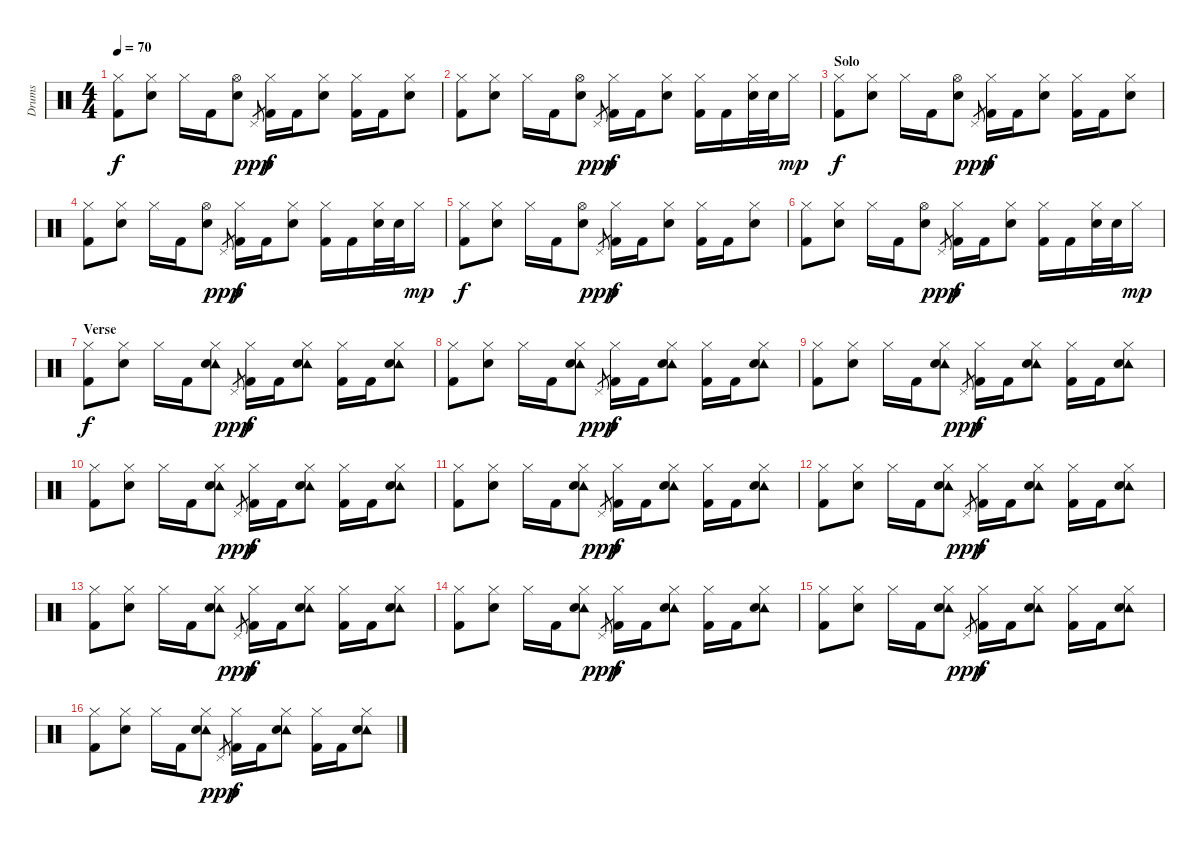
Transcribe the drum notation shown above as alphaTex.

\track ("Drums" "Drums") {instrument percussion}
\staff {score}
\articulation defaults
\ts (4 4)
\tempo 70
\clef neutral
\ks c
("Hi-Hat (closed)" "Kick (hit) 2").8{dy f} ("Hi-Hat (closed)" "Electric Snare (hit)").8 "Hi-Hat (closed)".16 "Kick (hit) 2".16 ("Hi-Hat (open)" "Electric Snare (hit)").8 "Pedal Hi-Hat (hit)".8{gr dy ppp} ("Hi-Hat (closed)" "Kick (hit) 2").16{dy f} "Kick (hit) 2".16 ("Hi-Hat (closed)" "Electric Snare (hit)").8 ("Hi-Hat (closed)" "Kick (hit) 2").16 "Kick (hit) 2".16 ("Hi-Hat (closed)" "Electric Snare (hit)").8 |
("Hi-Hat (closed)" "Kick (hit) 2").8 ("Hi-Hat (closed)" "Electric Snare (hit)").8 "Hi-Hat (closed)".16 "Kick (hit) 2".16 ("Hi-Hat (open)" "Electric Snare (hit)").8 "Pedal Hi-Hat (hit)".8{gr dy ppp} ("Hi-Hat (closed)" "Kick (hit) 2").16{dy f} "Kick (hit) 2".16 ("Hi-Hat (closed)" "Electric Snare (hit)").8 ("Hi-Hat (closed)" "Kick (hit) 2").16 "Kick (hit) 2".16 ("Hi-Hat (closed)" "Electric Snare (hit)").32 "Electric Snare (hit)".32 "Hi-Hat (closed)".16{dy mp} |
\section ("" "Solo")
("Hi-Hat (closed)" "Kick (hit) 2").8{dy f} ("Hi-Hat (closed)" "Electric Snare (hit)").8 "Hi-Hat (closed)".16 "Kick (hit) 2".16 ("Hi-Hat (open)" "Electric Snare (hit)").8 "Pedal Hi-Hat (hit)".8{gr dy ppp} ("Hi-Hat (closed)" "Kick (hit) 2").16{dy f} "Kick (hit) 2".16 ("Hi-Hat (closed)" "Electric Snare (hit)").8 ("Hi-Hat (closed)" "Kick (hit) 2").16 "Kick (hit) 2".16 ("Hi-Hat (closed)" "Electric Snare (hit)").8 |
("Hi-Hat (closed)" "Kick (hit) 2").8 ("Hi-Hat (closed)" "Electric Snare (hit)").8 "Hi-Hat (closed)".16 "Kick (hit) 2".16 ("Hi-Hat (open)" "Electric Snare (hit)").8 "Pedal Hi-Hat (hit)".8{gr dy ppp} ("Hi-Hat (closed)" "Kick (hit) 2").16{dy f} "Kick (hit) 2".16 ("Hi-Hat (closed)" "Electric Snare (hit)").8 ("Hi-Hat (closed)" "Kick (hit) 2").16 "Kick (hit) 2".16 ("Hi-Hat (closed)" "Electric Snare (hit)").32 "Electric Snare (hit)".32 "Hi-Hat (closed)".16{dy mp} |
("Hi-Hat (closed)" "Kick (hit) 2").8{dy f} ("Hi-Hat (closed)" "Electric Snare (hit)").8 "Hi-Hat (closed)".16 "Kick (hit) 2".16 ("Hi-Hat (open)" "Electric Snare (hit)").8 "Pedal Hi-Hat (hit)".8{gr dy ppp} ("Hi-Hat (closed)" "Kick (hit) 2").16{dy f} "Kick (hit) 2".16 ("Hi-Hat (closed)" "Electric Snare (hit)").8 ("Hi-Hat (closed)" "Kick (hit) 2").16 "Kick (hit) 2".16 ("Hi-Hat (closed)" "Electric Snare (hit)").8 |
("Hi-Hat (closed)" "Kick (hit) 2").8 ("Hi-Hat (closed)" "Electric Snare (hit)").8 "Hi-Hat (closed)".16 "Kick (hit) 2".16 ("Hi-Hat (open)" "Electric Snare (hit)").8 "Pedal Hi-Hat (hit)".8{gr dy ppp} ("Hi-Hat (closed)" "Kick (hit) 2").16{dy f} "Kick (hit) 2".16 ("Hi-Hat (closed)" "Electric Snare (hit)").8 ("Hi-Hat (closed)" "Kick (hit) 2").16 "Kick (hit) 2".16 ("Hi-Hat (closed)" "Electric Snare (hit)").32 "Electric Snare (hit)".32 "Hi-Hat (closed)".16{dy mp} |
\section ("" "Verse")
("Hi-Hat (closed)" "Kick (hit) 2").8{dy f} ("Hi-Hat (closed)" "Electric Snare (hit)").8 "Hi-Hat (closed)".16 "Kick (hit) 2".16 ("Tambourine (hit)" "Hi-Hat (closed)" "Electric Snare (hit)").8 "Pedal Hi-Hat (hit)".8{gr dy ppp} ("Hi-Hat (closed)" "Kick (hit) 2").16{dy f} "Kick (hit) 2".16 ("Tambourine (hit)" "Hi-Hat (closed)" "Electric Snare (hit)").8 ("Hi-Hat (closed)" "Kick (hit) 2").16 "Kick (hit) 2".16 ("Tambourine (hit)" "Hi-Hat (closed)" "Electric Snare (hit)").8 |
("Hi-Hat (closed)" "Kick (hit) 2").8 ("Hi-Hat (closed)" "Electric Snare (hit)").8 "Hi-Hat (closed)".16 "Kick (hit) 2".16 ("Tambourine (hit)" "Hi-Hat (closed)" "Electric Snare (hit)").8 "Pedal Hi-Hat (hit)".8{gr dy ppp} ("Hi-Hat (closed)" "Kick (hit) 2").16{dy f} "Kick (hit) 2".16 ("Tambourine (hit)" "Hi-Hat (closed)" "Electric Snare (hit)").8 ("Hi-Hat (closed)" "Kick (hit) 2").16 "Kick (hit) 2".16 ("Tambourine (hit)" "Hi-Hat (closed)" "Electric Snare (hit)").8 |
("Hi-Hat (closed)" "Kick (hit) 2").8 ("Hi-Hat (closed)" "Electric Snare (hit)").8 "Hi-Hat (closed)".16 "Kick (hit) 2".16 ("Tambourine (hit)" "Hi-Hat (closed)" "Electric Snare (hit)").8 "Pedal Hi-Hat (hit)".8{gr dy ppp} ("Hi-Hat (closed)" "Kick (hit) 2").16{dy f} "Kick (hit) 2".16 ("Tambourine (hit)" "Hi-Hat (closed)" "Electric Snare (hit)").8 ("Hi-Hat (closed)" "Kick (hit) 2").16 "Kick (hit) 2".16 ("Tambourine (hit)" "Hi-Hat (closed)" "Electric Snare (hit)").8 |
("Hi-Hat (closed)" "Kick (hit) 2").8 ("Hi-Hat (closed)" "Electric Snare (hit)").8 "Hi-Hat (closed)".16 "Kick (hit) 2".16 ("Tambourine (hit)" "Hi-Hat (closed)" "Electric Snare (hit)").8 "Pedal Hi-Hat (hit)".8{gr dy ppp} ("Hi-Hat (closed)" "Kick (hit) 2").16{dy f} "Kick (hit) 2".16 ("Tambourine (hit)" "Hi-Hat (closed)" "Electric Snare (hit)").8 ("Hi-Hat (closed)" "Kick (hit) 2").16 "Kick (hit) 2".16 ("Tambourine (hit)" "Hi-Hat (closed)" "Electric Snare (hit)").8 |
("Hi-Hat (closed)" "Kick (hit) 2").8 ("Hi-Hat (closed)" "Electric Snare (hit)").8 "Hi-Hat (closed)".16 "Kick (hit) 2".16 ("Tambourine (hit)" "Hi-Hat (closed)" "Electric Snare (hit)").8 "Pedal Hi-Hat (hit)".8{gr dy ppp} ("Hi-Hat (closed)" "Kick (hit) 2").16{dy f} "Kick (hit) 2".16 ("Tambourine (hit)" "Hi-Hat (closed)" "Electric Snare (hit)").8 ("Hi-Hat (closed)" "Kick (hit) 2").16 "Kick (hit) 2".16 ("Tambourine (hit)" "Hi-Hat (closed)" "Electric Snare (hit)").8 |
("Hi-Hat (closed)" "Kick (hit) 2").8 ("Hi-Hat (closed)" "Electric Snare (hit)").8 "Hi-Hat (closed)".16 "Kick (hit) 2".16 ("Tambourine (hit)" "Hi-Hat (closed)" "Electric Snare (hit)").8 "Pedal Hi-Hat (hit)".8{gr dy ppp} ("Hi-Hat (closed)" "Kick (hit) 2").16{dy f} "Kick (hit) 2".16 ("Tambourine (hit)" "Hi-Hat (closed)" "Electric Snare (hit)").8 ("Hi-Hat (closed)" "Kick (hit) 2").16 "Kick (hit) 2".16 ("Tambourine (hit)" "Hi-Hat (closed)" "Electric Snare (hit)").8 |
("Hi-Hat (closed)" "Kick (hit) 2").8 ("Hi-Hat (closed)" "Electric Snare (hit)").8 "Hi-Hat (closed)".16 "Kick (hit) 2".16 ("Tambourine (hit)" "Hi-Hat (closed)" "Electric Snare (hit)").8 "Pedal Hi-Hat (hit)".8{gr dy ppp} ("Hi-Hat (closed)" "Kick (hit) 2").16{dy f} "Kick (hit) 2".16 ("Tambourine (hit)" "Hi-Hat (closed)" "Electric Snare (hit)").8 ("Hi-Hat (closed)" "Kick (hit) 2").16 "Kick (hit) 2".16 ("Tambourine (hit)" "Hi-Hat (closed)" "Electric Snare (hit)").8 |
("Hi-Hat (closed)" "Kick (hit) 2").8 ("Hi-Hat (closed)" "Electric Snare (hit)").8 "Hi-Hat (closed)".16 "Kick (hit) 2".16 ("Tambourine (hit)" "Hi-Hat (closed)" "Electric Snare (hit)").8 "Pedal Hi-Hat (hit)".8{gr dy ppp} ("Hi-Hat (closed)" "Kick (hit) 2").16{dy f} "Kick (hit) 2".16 ("Tambourine (hit)" "Hi-Hat (closed)" "Electric Snare (hit)").8 ("Hi-Hat (closed)" "Kick (hit) 2").16 "Kick (hit) 2".16 ("Tambourine (hit)" "Hi-Hat (closed)" "Electric Snare (hit)").8 |
("Hi-Hat (closed)" "Kick (hit) 2").8 ("Hi-Hat (closed)" "Electric Snare (hit)").8 "Hi-Hat (closed)".16 "Kick (hit) 2".16 ("Tambourine (hit)" "Hi-Hat (closed)" "Electric Snare (hit)").8 "Pedal Hi-Hat (hit)".8{gr dy ppp} ("Hi-Hat (closed)" "Kick (hit) 2").16{dy f} "Kick (hit) 2".16 ("Tambourine (hit)" "Hi-Hat (closed)" "Electric Snare (hit)").8 ("Hi-Hat (closed)" "Kick (hit) 2").16 "Kick (hit) 2".16 ("Tambourine (hit)" "Hi-Hat (closed)" "Electric Snare (hit)").8 |
("Hi-Hat (closed)" "Kick (hit) 2").8 ("Hi-Hat (closed)" "Electric Snare (hit)").8 "Hi-Hat (closed)".16 "Kick (hit) 2".16 ("Tambourine (hit)" "Hi-Hat (closed)" "Electric Snare (hit)").8 "Pedal Hi-Hat (hit)".8{gr dy ppp} ("Hi-Hat (closed)" "Kick (hit) 2").16{dy f} "Kick (hit) 2".16 ("Tambourine (hit)" "Hi-Hat (closed)" "Electric Snare (hit)").8 ("Hi-Hat (closed)" "Kick (hit) 2").16 "Kick (hit) 2".16 ("Tambourine (hit)" "Hi-Hat (closed)" "Electric Snare (hit)").8
